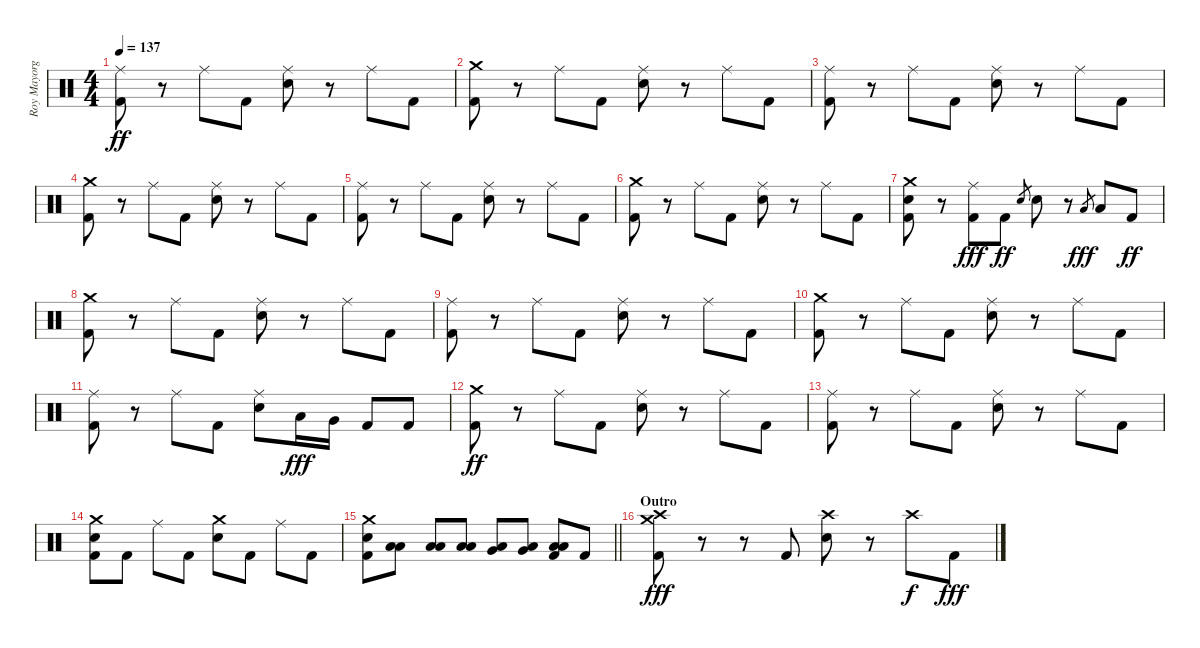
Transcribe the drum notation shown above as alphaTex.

\track ("Roy Mayorga (Drums)" "Roy Mayorg") {instrument percussion}
\staff {score}
\articulation defaults
\ts (4 4)
\tempo 137
\clef neutral
\ks c
("Ride (middle)" "Kick (hit) 2").8{dy ff} r.8 "Ride (middle)".8 "Kick (hit) 2".8 ("Ride (middle)" "Electric Snare (hit)").8 r.8 "Ride (middle)".8 "Kick (hit) 2".8 |
("Crash medium (hit)" "Kick (hit) 2").8 r.8 "Ride (middle)".8 "Kick (hit) 2".8 ("Ride (middle)" "Electric Snare (hit)").8 r.8 "Ride (middle)".8 "Kick (hit) 2".8 |
("Ride (middle)" "Kick (hit) 2").8 r.8 "Ride (middle)".8 "Kick (hit) 2".8 ("Ride (middle)" "Electric Snare (hit)").8 r.8 "Ride (middle)".8 "Kick (hit) 2".8 |
("Crash medium (hit)" "Kick (hit) 2").8 r.8 "Ride (middle)".8 "Kick (hit) 2".8 ("Ride (middle)" "Electric Snare (hit)").8 r.8 "Ride (middle)".8 "Kick (hit) 2".8 |
("Ride (middle)" "Kick (hit) 2").8 r.8 "Ride (middle)".8 "Kick (hit) 2".8 ("Ride (middle)" "Electric Snare (hit)").8 r.8 "Ride (middle)".8 "Kick (hit) 2".8 |
("Crash medium (hit)" "Kick (hit) 2").8 r.8 "Ride (middle)".8 "Kick (hit) 2".8 ("Ride (middle)" "Electric Snare (hit)").8 r.8 "Ride (middle)".8 "Kick (hit) 2".8 |
("Crash medium (hit)" "Electric Snare (hit)" "Kick (hit) 2").8 r.8 ("Ride (middle)" "Kick (hit) 2").8{dy fff} "Kick (hit) 2".8{dy ff} "Electric Snare (hit)".8{gr} "Electric Snare (hit)".8 r.8 "Low Tom (hit)".8{gr dy fff} "Low Tom (hit)".8 "Kick (hit) 2".8{dy ff} |
("Crash medium (hit)" "Kick (hit) 2").8 r.8 "Ride (middle)".8 "Kick (hit) 2".8 ("Ride (middle)" "Electric Snare (hit)").8 r.8 "Ride (middle)".8 "Kick (hit) 2".8 |
("Ride (middle)" "Kick (hit) 2").8 r.8 "Ride (middle)".8 "Kick (hit) 2".8 ("Ride (middle)" "Electric Snare (hit)").8 r.8 "Ride (middle)".8 "Kick (hit) 2".8 |
("Crash medium (hit)" "Kick (hit) 2").8 r.8 "Ride (middle)".8 "Kick (hit) 2".8 ("Ride (middle)" "Electric Snare (hit)").8 r.8 "Ride (middle)".8 "Kick (hit) 2".8 |
("Ride (middle)" "Kick (hit) 2").8 r.8 "Ride (middle)".8 "Kick (hit) 2".8 ("Ride (middle)" "Electric Snare (hit)").8 "Low Tom (hit)".16{dy fff} "Very Low Tom (hit)".16 "Kick (hit) 2".8 "Kick (hit) 2".8 |
("Crash medium (hit)" "Kick (hit) 2").8{dy ff} r.8 "Ride (middle)".8 "Kick (hit) 2".8 ("Ride (middle)" "Electric Snare (hit)").8 r.8 "Ride (middle)".8 "Kick (hit) 2".8 |
("Ride (middle)" "Kick (hit) 2").8 r.8 "Ride (middle)".8 "Kick (hit) 2".8 ("Ride (middle)" "Electric Snare (hit)").8 r.8 "Ride (middle)".8 "Kick (hit) 2".8 |
("Crash medium (hit)" "Electric Snare (hit)" "Kick (hit) 2").8 "Kick (hit) 2".8 "Ride (middle)".8 "Kick (hit) 2".8 ("Crash medium (hit)" "Electric Snare (hit)").8 "Kick (hit) 2".8 "Ride (middle)".8 "Kick (hit) 2".8 |
\barLineRight lightlight
("Crash medium (hit)" "Electric Snare (hit)" "Kick (hit) 2").8 ("Low Tom (hit)" "Low Floor Tom (hit)").8 ("Low Tom (hit)" "Low Floor Tom (hit)").8 ("Low Tom (hit)" "Low Floor Tom (hit)").8 ("Low Tom (hit)" "Very Low Tom (hit)").8 ("Low Tom (hit)" "Very Low Tom (hit)").8 ("Low Floor Tom (hit)" "Low Floor Tom (hit)" "Kick (hit) 2").8 "Kick (hit) 2".8 |
\section ("" "Outro")
("Crash medium (hit)" "Crash high (hit)" "Kick (hit) 2").8{dy fff volume 16} r.8 r.8 "Kick (hit) 2".8 ("Crash high (hit)" "Electric Snare (hit)").8 r.8 "Crash high (hit)".8{dy f} "Kick (hit) 2".8{dy fff}
